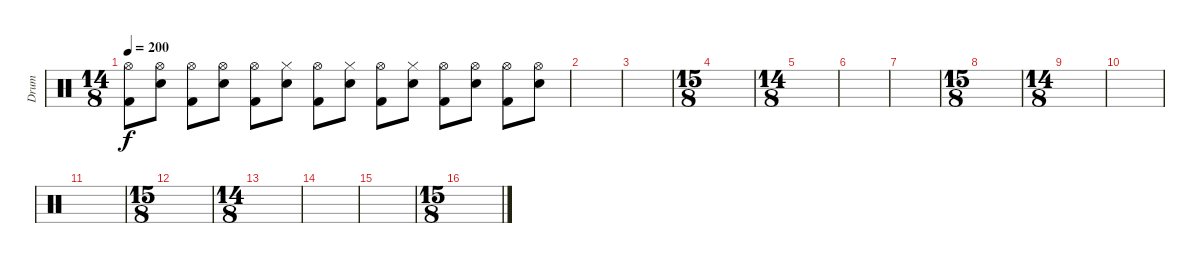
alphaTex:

\track ("Drum" "Drum") {instrument percussion}
\staff {score}
\articulation defaults
\ts (14 8)
\tempo 200
\clef neutral
\ks c
("Hi-Hat (open)" "Kick (hit) 2").8{dy f} ("Hi-Hat (open)" "Snare (hit) 2").8 ("Hi-Hat (open)" "Kick (hit) 2").8 ("Hi-Hat (open)" "Snare (hit) 2").8 ("Hi-Hat (open)" "Kick (hit) 2").8 ("Hi-Hat (closed)" "Snare (hit) 2").8 ("Hi-Hat (open)" "Kick (hit) 2").8 ("Hi-Hat (closed)" "Snare (hit) 2").8 ("Hi-Hat (open)" "Kick (hit) 2").8 ("Hi-Hat (closed)" "Snare (hit) 2").8 ("Hi-Hat (open)" "Kick (hit) 2").8 ("Hi-Hat (open)" "Snare (hit) 2").8 ("Hi-Hat (open)" "Kick (hit) 2").8 ("Hi-Hat (open)" "Snare (hit) 2").8 |
|
|
\ts (15 8)
|
\ts (14 8)
|
|
|
\ts (15 8)
|
\ts (14 8)
|
|
|
\ts (15 8)
|
\ts (14 8)
|
|
|
\ts (15 8)
